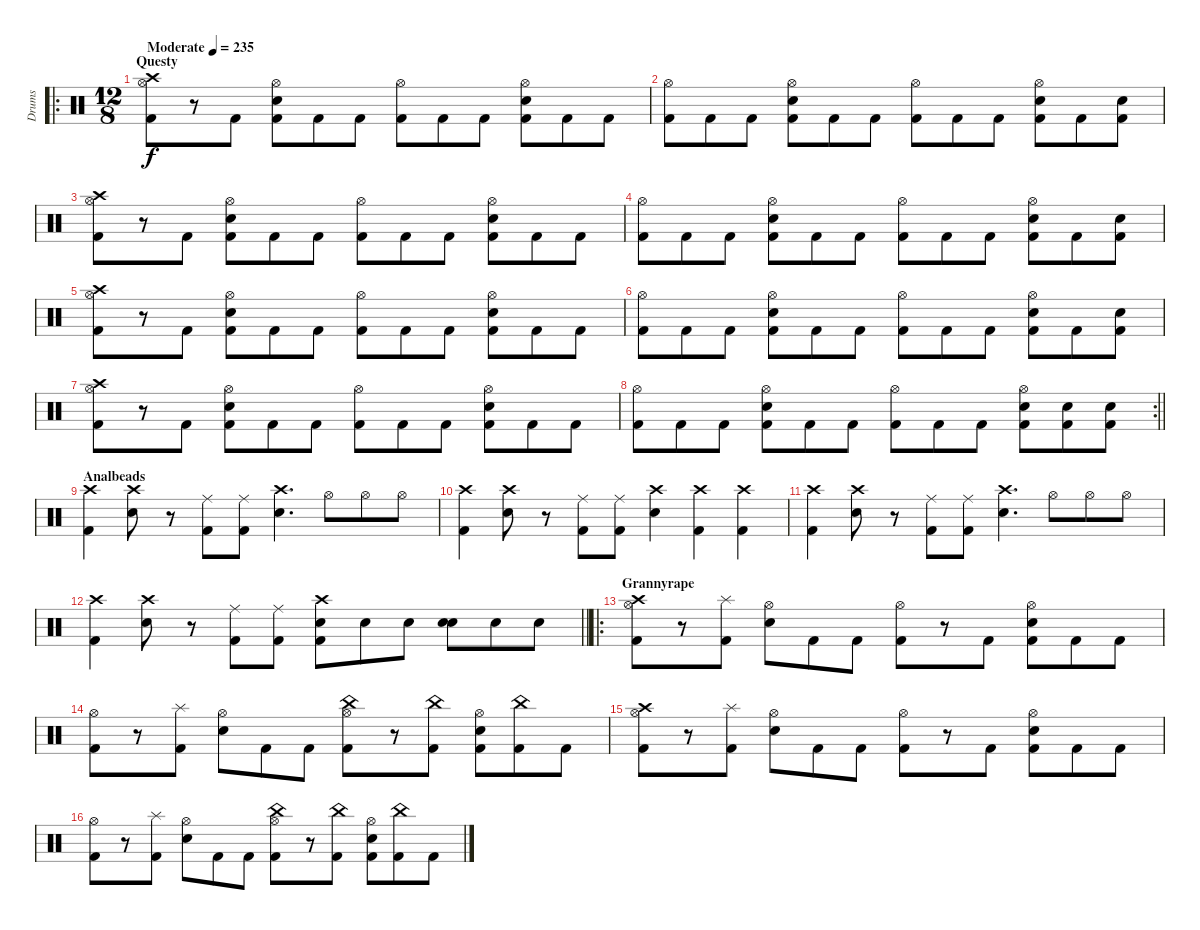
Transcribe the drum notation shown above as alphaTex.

\track ("Drums" "Drums") {instrument percussion}
\staff {score}
\articulation defaults
\ro
\ts (12 8)
\section ("" "Questy")
\tempo (235 "Moderate")
\clef neutral
\ks c
("Crash high (hit)" "Hi-Hat (open)" "Kick (hit) 2").8{dy f} r.8 "Kick (hit) 2".8 ("Hi-Hat (open)" "Snare (hit) 2" "Kick (hit) 2").8 "Kick (hit) 2".8 "Kick (hit) 2".8 ("Hi-Hat (open)" "Kick (hit) 2").8 "Kick (hit) 2".8 "Kick (hit) 2".8 ("Hi-Hat (open)" "Snare (hit) 2" "Kick (hit) 2").8 "Kick (hit) 2".8 "Kick (hit) 2".8 |
("Hi-Hat (open)" "Kick (hit) 2").8 "Kick (hit) 2".8 "Kick (hit) 2".8 ("Hi-Hat (open)" "Snare (hit) 2" "Kick (hit) 2").8 "Kick (hit) 2".8 "Kick (hit) 2".8 ("Hi-Hat (open)" "Kick (hit) 2").8 "Kick (hit) 2".8 "Kick (hit) 2".8 ("Hi-Hat (open)" "Snare (hit) 2" "Kick (hit) 2").8 "Kick (hit) 2".8 ("Snare (hit) 2" "Kick (hit) 2").8 |
("Crash high (hit)" "Hi-Hat (open)" "Kick (hit) 2").8 r.8 "Kick (hit) 2".8 ("Hi-Hat (open)" "Snare (hit) 2" "Kick (hit) 2").8 "Kick (hit) 2".8 "Kick (hit) 2".8 ("Hi-Hat (open)" "Kick (hit) 2").8 "Kick (hit) 2".8 "Kick (hit) 2".8 ("Hi-Hat (open)" "Snare (hit) 2" "Kick (hit) 2").8 "Kick (hit) 2".8 "Kick (hit) 2".8 |
("Hi-Hat (open)" "Kick (hit) 2").8 "Kick (hit) 2".8 "Kick (hit) 2".8 ("Hi-Hat (open)" "Snare (hit) 2" "Kick (hit) 2").8 "Kick (hit) 2".8 "Kick (hit) 2".8 ("Hi-Hat (open)" "Kick (hit) 2").8 "Kick (hit) 2".8 "Kick (hit) 2".8 ("Hi-Hat (open)" "Snare (hit) 2" "Kick (hit) 2").8 "Kick (hit) 2".8 ("Snare (hit) 2" "Kick (hit) 2").8 |
("Crash high (hit)" "Hi-Hat (open)" "Kick (hit) 2").8 r.8 "Kick (hit) 2".8 ("Hi-Hat (open)" "Snare (hit) 2" "Kick (hit) 2").8 "Kick (hit) 2".8 "Kick (hit) 2".8 ("Hi-Hat (open)" "Kick (hit) 2").8 "Kick (hit) 2".8 "Kick (hit) 2".8 ("Hi-Hat (open)" "Snare (hit) 2" "Kick (hit) 2").8 "Kick (hit) 2".8 "Kick (hit) 2".8 |
("Hi-Hat (open)" "Kick (hit) 2").8 "Kick (hit) 2".8 "Kick (hit) 2".8 ("Hi-Hat (open)" "Snare (hit) 2" "Kick (hit) 2").8 "Kick (hit) 2".8 "Kick (hit) 2".8 ("Hi-Hat (open)" "Kick (hit) 2").8 "Kick (hit) 2".8 "Kick (hit) 2".8 ("Hi-Hat (open)" "Snare (hit) 2" "Kick (hit) 2").8 "Kick (hit) 2".8 ("Snare (hit) 2" "Kick (hit) 2").8 |
("Crash high (hit)" "Hi-Hat (open)" "Kick (hit) 2").8 r.8 "Kick (hit) 2".8 ("Hi-Hat (open)" "Snare (hit) 2" "Kick (hit) 2").8 "Kick (hit) 2".8 "Kick (hit) 2".8 ("Hi-Hat (open)" "Kick (hit) 2").8 "Kick (hit) 2".8 "Kick (hit) 2".8 ("Hi-Hat (open)" "Snare (hit) 2" "Kick (hit) 2").8 "Kick (hit) 2".8 "Kick (hit) 2".8 |
\rc 2
\barLineRight lightlight
("Hi-Hat (open)" "Kick (hit) 2").8 "Kick (hit) 2".8 "Kick (hit) 2".8 ("Hi-Hat (open)" "Snare (hit) 2" "Kick (hit) 2").8 "Kick (hit) 2".8 "Kick (hit) 2".8 ("Hi-Hat (open)" "Kick (hit) 2").8 "Kick (hit) 2".8 "Kick (hit) 2".8 ("Hi-Hat (open)" "Snare (hit) 2" "Kick (hit) 2").8 ("Snare (hit) 2" "Kick (hit) 2").8 ("Snare (hit) 2" "Kick (hit) 2").8 |
\section ("" "Analbeads")
("Crash high (hit)" "Kick (hit) 2").4 ("Crash high (hit)" "Snare (hit) 2").8 r.8 ("Ride (middle)" "Kick (hit) 2").8 ("Ride (middle)" "Kick (hit) 2").8 ("Crash high (hit)" "Snare (hit) 2").4{d} "Hi-Hat (open)".8 "Hi-Hat (open)".8 "Hi-Hat (open)".8 |
("Crash high (hit)" "Kick (hit) 2").4 ("Crash high (hit)" "Snare (hit) 2").8 r.8 ("Ride (middle)" "Kick (hit) 2").8 ("Ride (middle)" "Kick (hit) 2").8 ("Crash high (hit)" "Snare (hit) 2").4 ("Crash high (hit)" "Kick (hit) 2").4 ("Crash high (hit)" "Kick (hit) 2").4 |
("Crash high (hit)" "Kick (hit) 2").4 ("Crash high (hit)" "Snare (hit) 2").8 r.8 ("Ride (middle)" "Kick (hit) 2").8 ("Ride (middle)" "Kick (hit) 2").8 ("Crash high (hit)" "Snare (hit) 2").4{d} "Hi-Hat (open)".8 "Hi-Hat (open)".8 "Hi-Hat (open)".8 |
\barLineRight lightlight
("Crash high (hit)" "Kick (hit) 2").4 ("Crash high (hit)" "Snare (hit) 2").8 r.8 ("Ride (middle)" "Kick (hit) 2").8 ("Ride (middle)" "Kick (hit) 2").8 ("Crash high (hit)" "Snare (hit) 2" "Kick (hit) 2").8 "Snare (hit) 2".8 "Snare (hit) 2".8 ("Snare (hit) 2" "Snare (hit) 2").8 "Snare (hit) 2".8 "Snare (hit) 2".8 |
\ro
\section ("" "Grannyrape")
("Crash high (hit)" "Hi-Hat (open)" "Kick (hit) 2").8 r.8 ("Splash (hit)" "Kick (hit) 2").8 ("Hi-Hat (open)" "Snare (hit) 2").8 "Kick (hit) 2".8 "Kick (hit) 2".8 ("Hi-Hat (open)" "Kick (hit) 2").8 r.8 "Kick (hit) 2".8 ("Hi-Hat (open)" "Snare (hit) 2" "Kick (hit) 2").8 "Kick (hit) 2".8 "Kick (hit) 2".8 |
("Hi-Hat (open)" "Kick (hit) 2").8 r.8 ("Splash (hit)" "Kick (hit) 2").8 ("Hi-Hat (open)" "Snare (hit) 2").8 "Kick (hit) 2".8 "Kick (hit) 2".8 ("China (hit)" "Hi-Hat (open)" "Kick (hit) 2").8 r.8 ("China (hit)" "Kick (hit) 2").8 ("Hi-Hat (open)" "Snare (hit) 2" "Kick (hit) 2").8 ("China (hit)" "Kick (hit) 2").8 "Kick (hit) 2".8 |
("Crash high (hit)" "Hi-Hat (open)" "Kick (hit) 2").8 r.8 ("Splash (hit)" "Kick (hit) 2").8 ("Hi-Hat (open)" "Snare (hit) 2").8 "Kick (hit) 2".8 "Kick (hit) 2".8 ("Hi-Hat (open)" "Kick (hit) 2").8 r.8 "Kick (hit) 2".8 ("Hi-Hat (open)" "Snare (hit) 2" "Kick (hit) 2").8 "Kick (hit) 2".8 "Kick (hit) 2".8 |
("Hi-Hat (open)" "Kick (hit) 2").8 r.8 ("Splash (hit)" "Kick (hit) 2").8 ("Hi-Hat (open)" "Snare (hit) 2").8 "Kick (hit) 2".8 "Kick (hit) 2".8 ("China (hit)" "Hi-Hat (open)" "Kick (hit) 2").8 r.8 ("China (hit)" "Kick (hit) 2").8 ("Hi-Hat (open)" "Snare (hit) 2" "Kick (hit) 2").8 ("China (hit)" "Kick (hit) 2").8 "Kick (hit) 2".8
